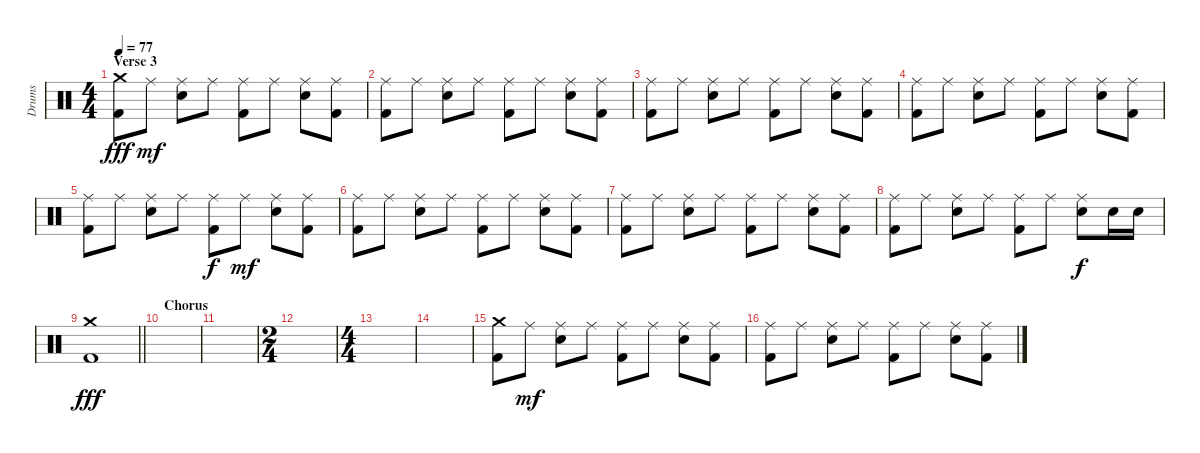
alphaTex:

\track ("Drums" "Drums") {instrument percussion}
\staff {score}
\articulation defaults
\ts (4 4)
\section ("" "Verse 3")
\tempo 77
\clef neutral
\ks c
("Crash medium (hit)" "Kick (hit) 2").8{dy fff} "Ride (middle)".8{dy mf} ("Ride (middle)" "Electric Snare (hit)").8 "Ride (middle)".8 ("Ride (middle)" "Kick (hit) 2").8 "Ride (middle)".8 ("Ride (middle)" "Electric Snare (hit)").8 ("Ride (middle)" "Kick (hit) 2").8 |
("Ride (middle)" "Kick (hit) 2").8 "Ride (middle)".8 ("Ride (middle)" "Electric Snare (hit)").8 "Ride (middle)".8 ("Ride (middle)" "Kick (hit) 2").8 "Ride (middle)".8 ("Ride (middle)" "Electric Snare (hit)").8 ("Ride (middle)" "Kick (hit) 2").8 |
("Ride (middle)" "Kick (hit) 2").8 "Ride (middle)".8 ("Ride (middle)" "Electric Snare (hit)").8 "Ride (middle)".8 ("Ride (middle)" "Kick (hit) 2").8 "Ride (middle)".8 ("Ride (middle)" "Electric Snare (hit)").8 ("Ride (middle)" "Kick (hit) 2").8 |
("Ride (middle)" "Kick (hit) 2").8 "Ride (middle)".8 ("Ride (middle)" "Electric Snare (hit)").8 "Ride (middle)".8 ("Ride (middle)" "Kick (hit) 2").8 "Ride (middle)".8 ("Ride (middle)" "Electric Snare (hit)").8 ("Ride (middle)" "Kick (hit) 2").8 |
("Ride (middle)" "Kick (hit) 2").8 "Ride (middle)".8 ("Ride (middle)" "Electric Snare (hit)").8 "Ride (middle)".8 ("Ride (middle)" "Kick (hit) 2").8{dy f} "Ride (middle)".8{dy mf} ("Ride (middle)" "Electric Snare (hit)").8 ("Ride (middle)" "Kick (hit) 2").8 |
("Ride (middle)" "Kick (hit) 2").8 "Ride (middle)".8 ("Ride (middle)" "Electric Snare (hit)").8 "Ride (middle)".8 ("Ride (middle)" "Kick (hit) 2").8 "Ride (middle)".8 ("Ride (middle)" "Electric Snare (hit)").8 ("Ride (middle)" "Kick (hit) 2").8 |
("Ride (middle)" "Kick (hit) 2").8 "Ride (middle)".8 ("Ride (middle)" "Electric Snare (hit)").8 "Ride (middle)".8 ("Ride (middle)" "Kick (hit) 2").8 "Ride (middle)".8 ("Ride (middle)" "Electric Snare (hit)").8 ("Ride (middle)" "Kick (hit) 2").8 |
("Ride (middle)" "Kick (hit) 2").8 "Ride (middle)".8 ("Ride (middle)" "Electric Snare (hit)").8 "Ride (middle)".8 ("Ride (middle)" "Kick (hit) 2").8 "Ride (middle)".8 ("Ride (middle)" "Electric Snare (hit)").8{dy f} "Electric Snare (hit)".16 "Electric Snare (hit)".16 |
\barLineRight lightlight
("Crash medium (hit)" "Kick (hit) 2").1{dy fff} |
\section ("" "Chorus")
|
|
\ts (2 4)
|
\ts (4 4)
|
|
("Crash medium (hit)" "Kick (hit) 2").8 "Ride (middle)".8{dy mf} ("Ride (middle)" "Electric Snare (hit)").8 "Ride (middle)".8 ("Ride (middle)" "Kick (hit) 2").8 "Ride (middle)".8 ("Ride (middle)" "Electric Snare (hit)").8 ("Ride (middle)" "Kick (hit) 2").8 |
("Ride (middle)" "Kick (hit) 2").8 "Ride (middle)".8 ("Ride (middle)" "Electric Snare (hit)").8 "Ride (middle)".8 ("Ride (middle)" "Kick (hit) 2").8 "Ride (middle)".8 ("Ride (middle)" "Electric Snare (hit)").8 ("Ride (middle)" "Kick (hit) 2").8
